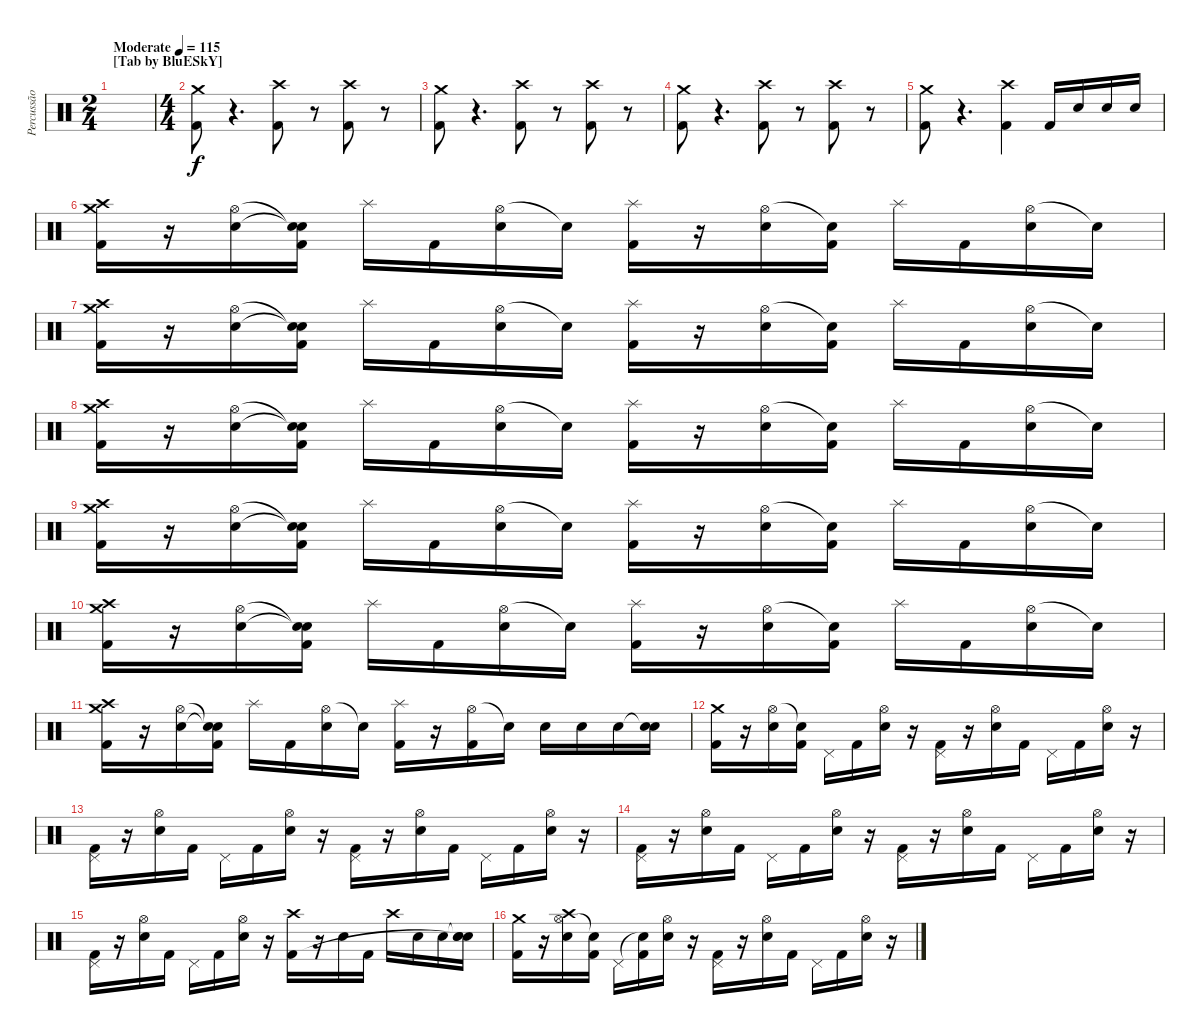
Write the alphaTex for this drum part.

\track ("Percussão" "Percussão") {instrument percussion}
\staff {score}
\articulation defaults
\ts (2 4)
\section ("" "[Tab by BluESkY]")
\tempo (115 "Moderate")
\clef neutral
\ks c
|
\ts (4 4)
("Crash medium (hit)" "Kick (hit) 2").8{volume 13} r.4{d volume 0} ("Crash high (hit)" "Kick (hit) 2").8{volume 13 balance 0} r.8{volume 0} ("Crash high (hit)" "Kick (hit) 2").8{volume 13 balance 16} r.8{volume 0} |
("Crash medium (hit)" "Kick (hit) 2").8{volume 13} r.4{d volume 0} ("Crash high (hit)" "Kick (hit) 2").8{volume 13 balance 0} r.8{volume 0} ("Crash high (hit)" "Kick (hit) 2").8{volume 13 balance 16} r.8{volume 0} |
("Crash medium (hit)" "Kick (hit) 2").8{volume 13} r.4{d volume 0} ("Crash high (hit)" "Kick (hit) 2").8{volume 13 balance 0} r.8{volume 0} ("Crash high (hit)" "Kick (hit) 2").8{volume 13 balance 16} r.8{volume 0} |
("Crash medium (hit)" "Kick (hit) 2").8{volume 13} r.4{d volume 0} ("Crash high (hit)" "Kick (hit) 2").4{volume 13 balance 0} "Kick (hit) 2".16 "Electric Snare (hit)".16 "Electric Snare (hit)".16 "Electric Snare (hit)".16 |
("Crash high (hit)" "Crash medium (hit)" "Kick (hit) 2").16{volume 13 balance 8} r.16 ("Hi-Hat (open)" "Electric Snare (hit)").16 ("Snare (hit)"{t} "Snare (hit)"{t} "Kick (hit) 2").16 "Splash (hit)".16 "Kick (hit) 2".16 ("Hi-Hat (open)" "Electric Snare (hit)").16 "Snare (hit)"{t}.16 ("Splash (hit)" "Kick (hit) 2").16 r.16 ("Hi-Hat (open)" "Electric Snare (hit)").16 ("Snare (hit)"{t} "Kick (hit) 2").16 "Splash (hit)".16 "Kick (hit) 2".16 ("Hi-Hat (open)" "Electric Snare (hit)").16 "Snare (hit)"{t}.16 |
("Crash high (hit)" "Crash medium (hit)" "Kick (hit) 2").16 r.16 ("Hi-Hat (open)" "Electric Snare (hit)").16 ("Snare (hit)"{t} "Snare (hit)"{t} "Kick (hit) 2").16 "Splash (hit)".16 "Kick (hit) 2".16 ("Hi-Hat (open)" "Electric Snare (hit)").16 "Snare (hit)"{t}.16 ("Splash (hit)" "Kick (hit) 2").16 r.16 ("Hi-Hat (open)" "Electric Snare (hit)").16 ("Snare (hit)"{t} "Kick (hit) 2").16 "Splash (hit)".16 "Kick (hit) 2".16 ("Hi-Hat (open)" "Electric Snare (hit)").16 "Snare (hit)"{t}.16 |
("Crash high (hit)" "Crash medium (hit)" "Kick (hit) 2").16 r.16 ("Hi-Hat (open)" "Electric Snare (hit)").16 ("Snare (hit)"{t} "Snare (hit)"{t} "Kick (hit) 2").16 "Splash (hit)".16 "Kick (hit) 2".16 ("Hi-Hat (open)" "Electric Snare (hit)").16 "Snare (hit)"{t}.16 ("Splash (hit)" "Kick (hit) 2").16 r.16 ("Hi-Hat (open)" "Electric Snare (hit)").16 ("Snare (hit)"{t} "Kick (hit) 2").16 "Splash (hit)".16 "Kick (hit) 2".16 ("Hi-Hat (open)" "Electric Snare (hit)").16 "Snare (hit)"{t}.16 |
("Crash high (hit)" "Crash medium (hit)" "Kick (hit) 2").16 r.16 ("Hi-Hat (open)" "Electric Snare (hit)").16 ("Snare (hit)"{t} "Snare (hit)"{t} "Kick (hit) 2").16 "Splash (hit)".16 "Kick (hit) 2".16 ("Hi-Hat (open)" "Electric Snare (hit)").16 "Snare (hit)"{t}.16 ("Splash (hit)" "Kick (hit) 2").16 r.16 ("Hi-Hat (open)" "Electric Snare (hit)").16 ("Snare (hit)"{t} "Kick (hit) 2").16 "Splash (hit)".16 "Kick (hit) 2".16 ("Hi-Hat (open)" "Electric Snare (hit)").16 "Snare (hit)"{t}.16 |
("Crash high (hit)" "Crash medium (hit)" "Kick (hit) 2").16 r.16 ("Hi-Hat (open)" "Electric Snare (hit)").16 ("Snare (hit)"{t} "Snare (hit)"{t} "Kick (hit) 2").16 "Splash (hit)".16 "Kick (hit) 2".16 ("Hi-Hat (open)" "Electric Snare (hit)").16 "Snare (hit)"{t}.16 ("Splash (hit)" "Kick (hit) 2").16 r.16 ("Hi-Hat (open)" "Electric Snare (hit)").16 ("Snare (hit)"{t} "Kick (hit) 2").16 "Splash (hit)".16 "Kick (hit) 2".16 ("Hi-Hat (open)" "Electric Snare (hit)").16 "Snare (hit)"{t}.16 |
("Crash high (hit)" "Crash medium (hit)" "Kick (hit) 2").16 r.16 ("Hi-Hat (open)" "Electric Snare (hit)").16 ("Snare (hit)"{t} "Snare (hit)"{t} "Kick (hit) 2").16 "Splash (hit)".16 "Kick (hit) 2".16 ("Hi-Hat (open)" "Electric Snare (hit)").16 "Snare (hit)"{t}.16 ("Splash (hit)" "Kick (hit) 2").16 r.16 ("Hi-Hat (open)" "Kick (hit) 2").16 "Snare (hit)"{t}.16 "Electric Snare (hit)".16 "Electric Snare (hit)".16 "Electric Snare (hit)".16 ("Snare (hit)"{t} "Electric Snare (hit)").16 |
("Crash medium (hit)" "Kick (hit) 2").16 r.16 ("Hi-Hat (open)" "Electric Snare (hit)").16 ("Snare (hit)"{t} "Kick (hit) 2").16 "Pedal Hi-Hat (hit)".16 "Kick (hit) 2".16 ("Hi-Hat (open)" "Electric Snare (hit)").16 r.16 ("Pedal Hi-Hat (hit)" "Kick (hit) 2").16 r.16 ("Hi-Hat (open)" "Electric Snare (hit)").16 "Kick (hit) 2".16 "Pedal Hi-Hat (hit)".16 "Kick (hit) 2".16 ("Hi-Hat (open)" "Electric Snare (hit)").16 r.16 |
("Pedal Hi-Hat (hit)" "Kick (hit) 2").16 r.16 ("Hi-Hat (open)" "Electric Snare (hit)").16 "Kick (hit) 2".16 "Pedal Hi-Hat (hit)".16 "Kick (hit) 2".16 ("Hi-Hat (open)" "Electric Snare (hit)").16 r.16 ("Pedal Hi-Hat (hit)" "Kick (hit) 2").16 r.16 ("Hi-Hat (open)" "Electric Snare (hit)").16 "Kick (hit) 2".16 "Pedal Hi-Hat (hit)".16 "Kick (hit) 2".16 ("Hi-Hat (open)" "Electric Snare (hit)").16 r.16 |
("Pedal Hi-Hat (hit)" "Kick (hit) 2").16 r.16 ("Hi-Hat (open)" "Electric Snare (hit)").16 "Kick (hit) 2".16 "Pedal Hi-Hat (hit)".16 "Kick (hit) 2".16 ("Hi-Hat (open)" "Electric Snare (hit)").16 r.16 ("Pedal Hi-Hat (hit)" "Kick (hit) 2").16 r.16 ("Hi-Hat (open)" "Electric Snare (hit)").16 "Kick (hit) 2".16 "Pedal Hi-Hat (hit)".16 "Kick (hit) 2".16 ("Hi-Hat (open)" "Electric Snare (hit)").16 r.16 |
("Pedal Hi-Hat (hit)" "Kick (hit) 2").16 r.16 ("Hi-Hat (open)" "Electric Snare (hit)").16 "Kick (hit) 2".16 "Pedal Hi-Hat (hit)".16 "Kick (hit) 2".16 ("Hi-Hat (open)" "Electric Snare (hit)").16 r.16 ("Crash high (hit)" "Kick (hit) 2").16 r.16 "Electric Snare (hit)".16 "Kick (hit) 2".16 "Crash high (hit)".16 "Electric Snare (hit)".16 "Electric Snare (hit)".16 ("Snare (hit)"{t} "Snare (hit)"{t} "Electric Snare (hit)").16 |
("Crash medium (hit)" "Kick (hit) 2").16 r.16 ("Hi-Hat (open)" "Electric Snare (hit)" "Crash high (hit)").16 ("Snare (hit)"{t} "Kick (hit) 2").16 "Pedal Hi-Hat (hit)".16 ("Snare (hit)"{t} "Kick (hit) 2").16 ("Hi-Hat (open)" "Electric Snare (hit)").16 r.16 ("Pedal Hi-Hat (hit)" "Kick (hit) 2").16 r.16 ("Hi-Hat (open)" "Electric Snare (hit)").16 "Kick (hit) 2".16 "Pedal Hi-Hat (hit)".16 "Kick (hit) 2".16 ("Hi-Hat (open)" "Electric Snare (hit)").16 r.16
